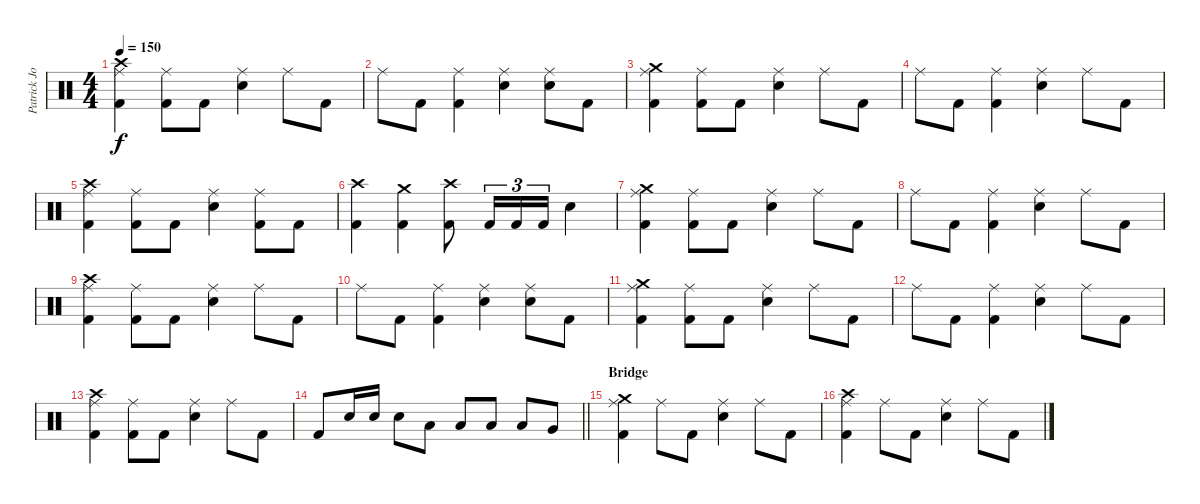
\track ("Patrick Johansson" "Patrick Jo") {instrument percussion}
\staff {score}
\articulation defaults
\ts (4 4)
\tempo 150
\clef neutral
\ks c
("Crash high (hit)" "Ride (middle)" "Kick (hit) 2").4{dy f} ("Ride (middle)" "Kick (hit) 2").8 "Kick (hit) 2".8 ("Ride (middle)" "Snare (hit) 2").4 "Ride (middle)".8 "Kick (hit) 2".8 |
"Ride (middle)".8 "Kick (hit) 2".8 ("Ride (middle)" "Kick (hit) 2").4 ("Ride (middle)" "Snare (hit) 2").4 ("Ride (middle)" "Snare (hit) 2").8 "Kick (hit) 2".8 |
("Crash medium (hit)" "Ride (middle)" "Kick (hit) 2").4 ("Ride (middle)" "Kick (hit) 2").8 "Kick (hit) 2".8 ("Ride (middle)" "Snare (hit) 2").4 "Ride (middle)".8 "Kick (hit) 2".8 |
"Ride (middle)".8 "Kick (hit) 2".8 ("Ride (middle)" "Kick (hit) 2").4 ("Ride (middle)" "Snare (hit) 2").4 "Ride (middle)".8 "Kick (hit) 2".8 |
("Crash high (hit)" "Ride (middle)" "Kick (hit) 2").4 ("Ride (middle)" "Kick (hit) 2").8 "Kick (hit) 2".8 ("Ride (middle)" "Snare (hit) 2").4 ("Ride (middle)" "Kick (hit) 2").8 "Kick (hit) 2".8 |
("Crash high (hit)" "Kick (hit) 2").4 ("Crash medium (hit)" "Kick (hit) 2").4 ("Crash high (hit)" "Kick (hit) 2").8 "Kick (hit) 2".16{tu (3 2)} "Kick (hit) 2".16{tu (3 2)} "Kick (hit) 2".16{tu (3 2)} "Snare (hit) 2".4 |
("Crash medium (hit)" "Ride (middle)" "Kick (hit) 2").4 ("Ride (middle)" "Kick (hit) 2").8 "Kick (hit) 2".8 ("Ride (middle)" "Snare (hit) 2").4 "Ride (middle)".8 "Kick (hit) 2".8 |
"Ride (middle)".8 "Kick (hit) 2".8 ("Ride (middle)" "Kick (hit) 2").4 ("Ride (middle)" "Snare (hit) 2").4 "Ride (middle)".8 "Kick (hit) 2".8 |
("Crash high (hit)" "Ride (middle)" "Kick (hit) 2").4 ("Ride (middle)" "Kick (hit) 2").8 "Kick (hit) 2".8 ("Ride (middle)" "Snare (hit) 2").4 "Ride (middle)".8 "Kick (hit) 2".8 |
"Ride (middle)".8 "Kick (hit) 2".8 ("Ride (middle)" "Kick (hit) 2").4 ("Ride (middle)" "Snare (hit) 2").4 ("Ride (middle)" "Snare (hit) 2").8 "Kick (hit) 2".8 |
("Crash medium (hit)" "Ride (middle)" "Kick (hit) 2").4 ("Ride (middle)" "Kick (hit) 2").8 "Kick (hit) 2".8 ("Ride (middle)" "Snare (hit) 2").4 "Ride (middle)".8 "Kick (hit) 2".8 |
"Ride (middle)".8 "Kick (hit) 2".8 ("Ride (middle)" "Kick (hit) 2").4 ("Ride (middle)" "Snare (hit) 2").4 "Ride (middle)".8 "Kick (hit) 2".8 |
("Crash high (hit)" "Ride (middle)" "Kick (hit) 2").4 ("Ride (middle)" "Kick (hit) 2").8 "Kick (hit) 2".8 ("Ride (middle)" "Snare (hit) 2").4 "Ride (middle)".8 "Kick (hit) 2".8 |
\barLineRight lightlight "Kick (hit) 2".8 "Snare (hit) 2".16 "Snare (hit) 2".16 "Snare (hit) 2".8 "Low Tom (hit)".8 "Low Tom (hit)".8 "Low Floor Tom (hit)".8 "Low Floor Tom (hit)".8 "Very Low Tom (hit)".8
|
\section ("" "Bridge")
("Crash medium (hit)" "Ride (middle)" "Kick (hit) 2").4 "Ride (middle)".8 "Kick (hit) 2".8 ("Ride (middle)" "Snare (hit) 2").4 "Ride (middle)".8 "Kick (hit) 2".8 |
("Crash high (hit)" "Ride (middle)" "Kick (hit) 2").4 "Ride (middle)".8 "Kick (hit) 2".8 ("Ride (middle)" "Snare (hit) 2").4 "Ride (middle)".8 "Kick (hit) 2".8
